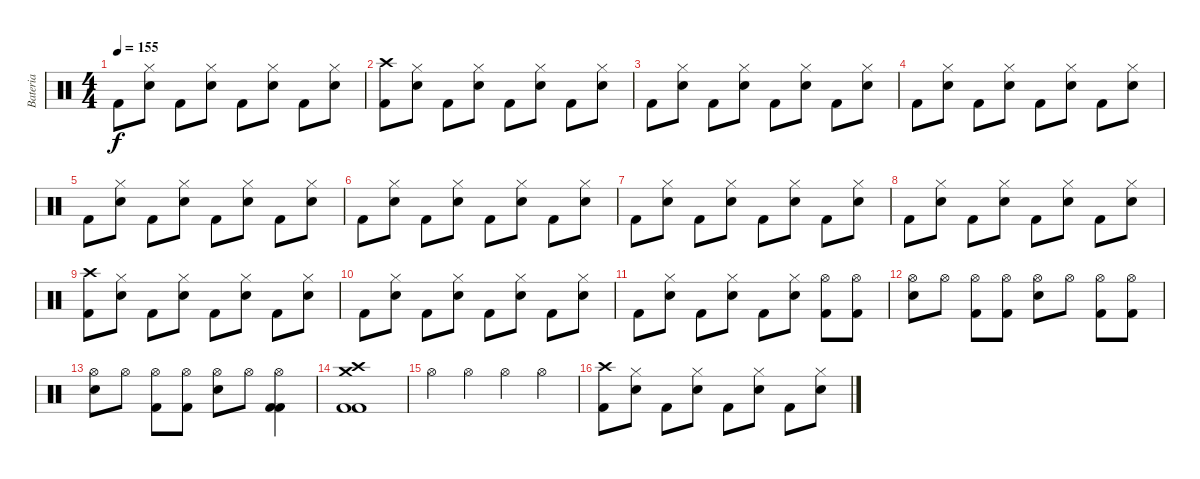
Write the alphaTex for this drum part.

\track ("Bateria" "Bateria") {instrument percussion}
\staff {score}
\articulation defaults
\ts (4 4)
\tempo 155
\clef neutral
\ks c "Kick (hit) 2".8{dy f}
("Electric Snare (hit)" "Hi-Hat (closed)").8 "Kick (hit) 2".8 ("Electric Snare (hit)" "Hi-Hat (closed)").8 "Kick (hit) 2".8 ("Electric Snare (hit)" "Hi-Hat (closed)").8 "Kick (hit) 2".8 ("Electric Snare (hit)" "Hi-Hat (closed)").8 |
("Kick (hit) 2" "Crash high (hit)").8 ("Electric Snare (hit)" "Hi-Hat (closed)").8 "Kick (hit) 2".8 ("Electric Snare (hit)" "Hi-Hat (closed)").8 "Kick (hit) 2".8 ("Electric Snare (hit)" "Hi-Hat (closed)").8 "Kick (hit) 2".8 ("Electric Snare (hit)" "Hi-Hat (closed)").8 |
"Kick (hit) 2".8 ("Electric Snare (hit)" "Hi-Hat (closed)").8 "Kick (hit) 2".8 ("Electric Snare (hit)" "Hi-Hat (closed)").8 "Kick (hit) 2".8 ("Electric Snare (hit)" "Hi-Hat (closed)").8 "Kick (hit) 2".8 ("Electric Snare (hit)" "Hi-Hat (closed)").8 |
"Kick (hit) 2".8 ("Electric Snare (hit)" "Hi-Hat (closed)").8 "Kick (hit) 2".8 ("Electric Snare (hit)" "Hi-Hat (closed)").8 "Kick (hit) 2".8 ("Electric Snare (hit)" "Hi-Hat (closed)").8 "Kick (hit) 2".8 ("Electric Snare (hit)" "Hi-Hat (closed)").8 |
"Kick (hit) 2".8 ("Electric Snare (hit)" "Hi-Hat (closed)").8 "Kick (hit) 2".8 ("Electric Snare (hit)" "Hi-Hat (closed)").8 "Kick (hit) 2".8 ("Electric Snare (hit)" "Hi-Hat (closed)").8 "Kick (hit) 2".8 ("Electric Snare (hit)" "Hi-Hat (closed)").8 |
"Kick (hit) 2".8 ("Electric Snare (hit)" "Hi-Hat (closed)").8 "Kick (hit) 2".8 ("Electric Snare (hit)" "Hi-Hat (closed)").8 "Kick (hit) 2".8 ("Electric Snare (hit)" "Hi-Hat (closed)").8 "Kick (hit) 2".8 ("Electric Snare (hit)" "Hi-Hat (closed)").8 |
"Kick (hit) 2".8 ("Electric Snare (hit)" "Hi-Hat (closed)").8 "Kick (hit) 2".8 ("Electric Snare (hit)" "Hi-Hat (closed)").8 "Kick (hit) 2".8 ("Electric Snare (hit)" "Hi-Hat (closed)").8 "Kick (hit) 2".8 ("Electric Snare (hit)" "Hi-Hat (closed)").8 |
"Kick (hit) 2".8 ("Electric Snare (hit)" "Hi-Hat (closed)").8 "Kick (hit) 2".8 ("Electric Snare (hit)" "Hi-Hat (closed)").8 "Kick (hit) 2".8 ("Electric Snare (hit)" "Hi-Hat (closed)").8 "Kick (hit) 2".8 ("Electric Snare (hit)" "Hi-Hat (closed)").8 |
("Kick (hit) 2" "Crash high (hit)").8 ("Electric Snare (hit)" "Hi-Hat (closed)").8 "Kick (hit) 2".8 ("Electric Snare (hit)" "Hi-Hat (closed)").8 "Kick (hit) 2".8 ("Electric Snare (hit)" "Hi-Hat (closed)").8 "Kick (hit) 2".8 ("Electric Snare (hit)" "Hi-Hat (closed)").8 |
"Kick (hit) 2".8 ("Electric Snare (hit)" "Hi-Hat (closed)").8 "Kick (hit) 2".8 ("Electric Snare (hit)" "Hi-Hat (closed)").8 "Kick (hit) 2".8 ("Electric Snare (hit)" "Hi-Hat (closed)").8 "Kick (hit) 2".8 ("Electric Snare (hit)" "Hi-Hat (closed)").8 |
"Kick (hit) 2".8 ("Electric Snare (hit)" "Hi-Hat (closed)").8 "Kick (hit) 2".8 ("Electric Snare (hit)" "Hi-Hat (closed)").8 "Kick (hit) 2".8 ("Electric Snare (hit)" "Hi-Hat (closed)").8 ("Kick (hit) 2" "Hi-Hat (open)").8 ("Kick (hit) 2" "Hi-Hat (open)").8 |
("Electric Snare (hit)" "Hi-Hat (open)").8 "Hi-Hat (open)".8 ("Kick (hit) 2" "Hi-Hat (open)").8 ("Kick (hit) 2" "Hi-Hat (open)").8 ("Electric Snare (hit)" "Hi-Hat (open)").8 "Hi-Hat (open)".8 ("Kick (hit) 2" "Hi-Hat (open)").8 ("Kick (hit) 2" "Hi-Hat (open)").8 |
("Electric Snare (hit)" "Hi-Hat (open)").8 "Hi-Hat (open)".8 ("Kick (hit) 2" "Hi-Hat (open)").8 ("Kick (hit) 2" "Hi-Hat (open)").8 ("Electric Snare (hit)" "Hi-Hat (open)").8 "Hi-Hat (open)".8 ("Kick (hit) 2" "Kick (hit) 2" "Hi-Hat (open)").4 |
("Kick (hit) 2" "Kick (hit) 2" "Crash high (hit)" "Crash medium (hit)").1 |
"Hi-Hat (open)".4 "Hi-Hat (open)".4 "Hi-Hat (open)".4 "Hi-Hat (open)".4 |
("Kick (hit) 2" "Crash high (hit)").8 ("Electric Snare (hit)" "Hi-Hat (closed)").8 "Kick (hit) 2".8 ("Electric Snare (hit)" "Hi-Hat (closed)").8 "Kick (hit) 2".8 ("Electric Snare (hit)" "Hi-Hat (closed)").8 "Kick (hit) 2".8 ("Electric Snare (hit)" "Hi-Hat (closed)").8
